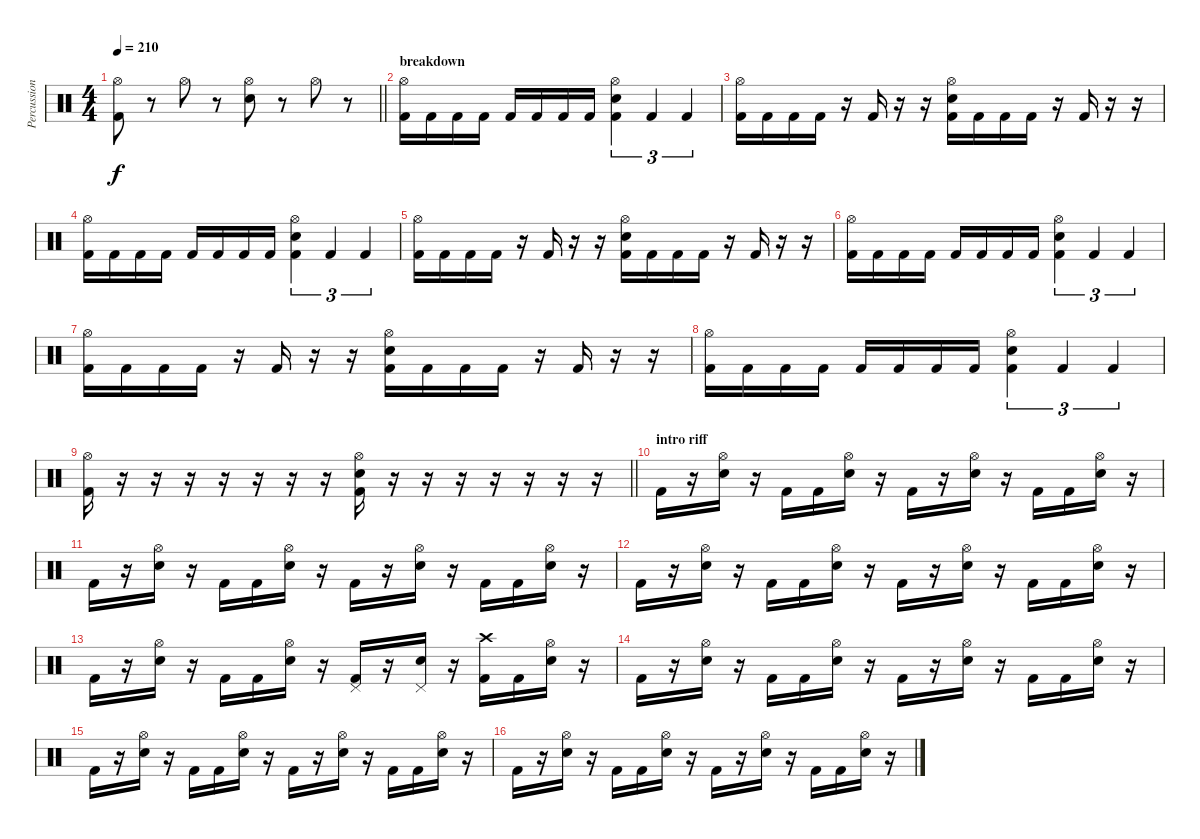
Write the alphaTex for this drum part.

\track ("Percussion" "Percussion") {instrument percussion}
\staff {score}
\articulation defaults
\ts (4 4)
\tempo 210
\clef neutral
\barLineRight lightlight
\ks c
("Hi-Hat (open)" "Kick (hit) 2").8{dy f} r.8 "Hi-Hat (open)".8 r.8 ("Hi-Hat (open)" "Snare (hit) 2").8 r.8 "Hi-Hat (open)".8 r.8 |
\section ("" "breakdown")
("Hi-Hat (open)" "Kick (hit) 2").16 "Kick (hit) 2".16 "Kick (hit) 2".16 "Kick (hit) 2".16 "Kick (hit) 2".16 "Kick (hit) 2".16 "Kick (hit) 2".16 "Kick (hit) 2".16 ("Hi-Hat (open)" "Snare (hit) 2" "Kick (hit) 2").4{tu (3 2)} "Kick (hit) 2".4{tu (3 2)} "Kick (hit) 2".4{tu (3 2)} |
("Hi-Hat (open)" "Kick (hit) 2").16 "Kick (hit) 2".16 "Kick (hit) 2".16 "Kick (hit) 2".16 r.16 "Kick (hit) 2".16 r.16 r.16 ("Hi-Hat (open)" "Snare (hit) 2" "Kick (hit) 2").16 "Kick (hit) 2".16 "Kick (hit) 2".16 "Kick (hit) 2".16 r.16 "Kick (hit) 2".16 r.16 r.16 |
("Hi-Hat (open)" "Kick (hit) 2").16 "Kick (hit) 2".16 "Kick (hit) 2".16 "Kick (hit) 2".16 "Kick (hit) 2".16 "Kick (hit) 2".16 "Kick (hit) 2".16 "Kick (hit) 2".16 ("Hi-Hat (open)" "Snare (hit) 2" "Kick (hit) 2").4{tu (3 2)} "Kick (hit) 2".4{tu (3 2)} "Kick (hit) 2".4{tu (3 2)} |
("Hi-Hat (open)" "Kick (hit) 2").16 "Kick (hit) 2".16 "Kick (hit) 2".16 "Kick (hit) 2".16 r.16 "Kick (hit) 2".16 r.16 r.16 ("Hi-Hat (open)" "Snare (hit) 2" "Kick (hit) 2").16 "Kick (hit) 2".16 "Kick (hit) 2".16 "Kick (hit) 2".16 r.16 "Kick (hit) 2".16 r.16 r.16 |
("Hi-Hat (open)" "Kick (hit) 2").16 "Kick (hit) 2".16 "Kick (hit) 2".16 "Kick (hit) 2".16 "Kick (hit) 2".16 "Kick (hit) 2".16 "Kick (hit) 2".16 "Kick (hit) 2".16 ("Hi-Hat (open)" "Snare (hit) 2" "Kick (hit) 2").4{tu (3 2)} "Kick (hit) 2".4{tu (3 2)} "Kick (hit) 2".4{tu (3 2)} |
("Hi-Hat (open)" "Kick (hit) 2").16 "Kick (hit) 2".16 "Kick (hit) 2".16 "Kick (hit) 2".16 r.16 "Kick (hit) 2".16 r.16 r.16 ("Hi-Hat (open)" "Snare (hit) 2" "Kick (hit) 2").16 "Kick (hit) 2".16 "Kick (hit) 2".16 "Kick (hit) 2".16 r.16 "Kick (hit) 2".16 r.16 r.16 |
("Hi-Hat (open)" "Kick (hit) 2").16 "Kick (hit) 2".16 "Kick (hit) 2".16 "Kick (hit) 2".16 "Kick (hit) 2".16 "Kick (hit) 2".16 "Kick (hit) 2".16 "Kick (hit) 2".16 ("Hi-Hat (open)" "Snare (hit) 2" "Kick (hit) 2").4{tu (3 2)} "Kick (hit) 2".4{tu (3 2)} "Kick (hit) 2".4{tu (3 2)} |
\barLineRight lightlight
("Hi-Hat (open)" "Kick (hit) 2").16 r.16 r.16 r.16 r.16 r.16 r.16 r.16 ("Hi-Hat (open)" "Snare (hit) 2" "Kick (hit) 2").16 r.16 r.16 r.16 r.16 r.16 r.16 r.16 |
\section ("" "intro riff")
"Kick (hit) 2".16 r.16 ("Hi-Hat (open)" "Snare (hit) 2").16 r.16 "Kick (hit) 2".16 "Kick (hit) 2".16 ("Hi-Hat (open)" "Snare (hit) 2").16 r.16 "Kick (hit) 2".16 r.16 ("Hi-Hat (open)" "Snare (hit) 2").16 r.16 "Kick (hit) 2".16 "Kick (hit) 2".16 ("Hi-Hat (open)" "Snare (hit) 2").16 r.16 |
"Kick (hit) 2".16 r.16 ("Hi-Hat (open)" "Snare (hit) 2").16 r.16 "Kick (hit) 2".16 "Kick (hit) 2".16 ("Hi-Hat (open)" "Snare (hit) 2").16 r.16 "Kick (hit) 2".16 r.16 ("Hi-Hat (open)" "Snare (hit) 2").16 r.16 "Kick (hit) 2".16 "Kick (hit) 2".16 ("Hi-Hat (open)" "Snare (hit) 2").16 r.16 |
"Kick (hit) 2".16 r.16 ("Hi-Hat (open)" "Snare (hit) 2").16 r.16 "Kick (hit) 2".16 "Kick (hit) 2".16 ("Hi-Hat (open)" "Snare (hit) 2").16 r.16 "Kick (hit) 2".16 r.16 ("Hi-Hat (open)" "Snare (hit) 2").16 r.16 "Kick (hit) 2".16 "Kick (hit) 2".16 ("Hi-Hat (open)" "Snare (hit) 2").16 r.16 |
"Kick (hit) 2".16 r.16 ("Hi-Hat (open)" "Snare (hit) 2").16 r.16 "Kick (hit) 2".16 "Kick (hit) 2".16 ("Hi-Hat (open)" "Snare (hit) 2").16 r.16 ("Pedal Hi-Hat (hit)" "Kick (hit) 2").16 r.16 ("Pedal Hi-Hat (hit)" "Snare (hit) 2").16 r.16 ("Crash high (hit)" "Kick (hit) 2").16 "Kick (hit) 2".16 ("Hi-Hat (open)" "Snare (hit) 2").16 r.16 |
"Kick (hit) 2".16 r.16 ("Hi-Hat (open)" "Snare (hit) 2").16 r.16 "Kick (hit) 2".16 "Kick (hit) 2".16 ("Hi-Hat (open)" "Snare (hit) 2").16 r.16 "Kick (hit) 2".16 r.16 ("Hi-Hat (open)" "Snare (hit) 2").16 r.16 "Kick (hit) 2".16 "Kick (hit) 2".16 ("Hi-Hat (open)" "Snare (hit) 2").16 r.16 |
"Kick (hit) 2".16 r.16 ("Hi-Hat (open)" "Snare (hit) 2").16 r.16 "Kick (hit) 2".16 "Kick (hit) 2".16 ("Hi-Hat (open)" "Snare (hit) 2").16 r.16 "Kick (hit) 2".16 r.16 ("Hi-Hat (open)" "Snare (hit) 2").16 r.16 "Kick (hit) 2".16 "Kick (hit) 2".16 ("Hi-Hat (open)" "Snare (hit) 2").16 r.16 |
"Kick (hit) 2".16 r.16 ("Hi-Hat (open)" "Snare (hit) 2").16 r.16 "Kick (hit) 2".16 "Kick (hit) 2".16 ("Hi-Hat (open)" "Snare (hit) 2").16 r.16 "Kick (hit) 2".16 r.16 ("Hi-Hat (open)" "Snare (hit) 2").16 r.16 "Kick (hit) 2".16 "Kick (hit) 2".16 ("Hi-Hat (open)" "Snare (hit) 2").16 r.16
